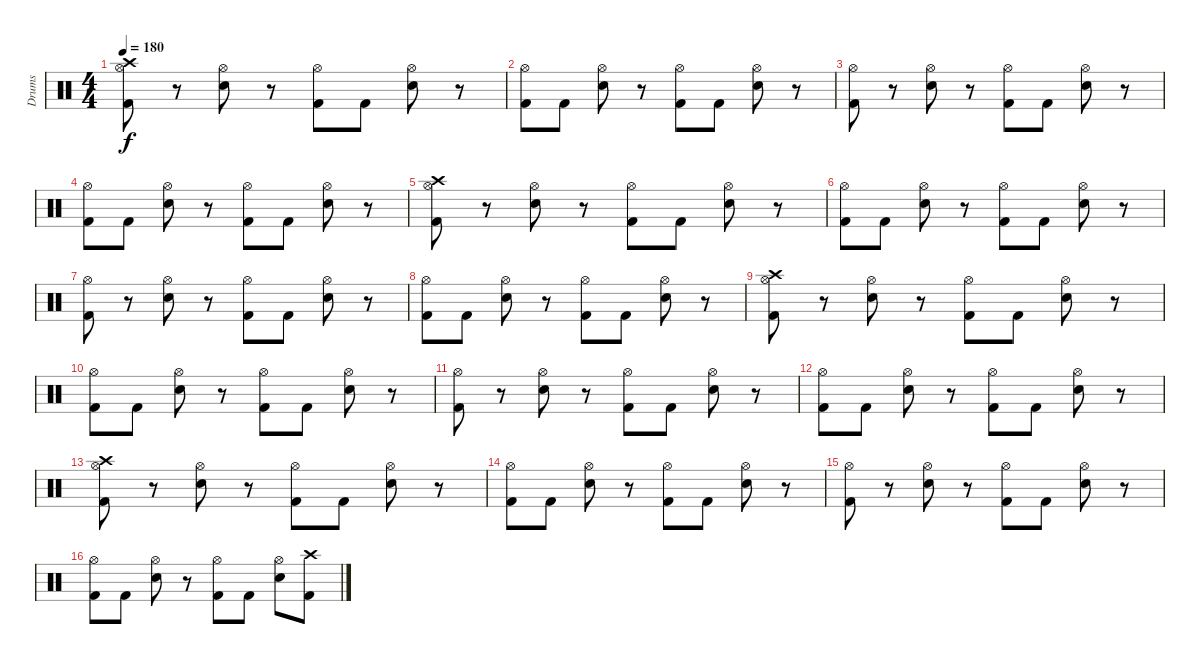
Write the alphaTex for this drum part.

\track ("Drums" "Drums") {instrument percussion}
\staff {score}
\articulation defaults
\ts (4 4)
\tempo 180
\clef neutral
\ks c
("Crash high (hit)" "Hi-Hat (open)" "Kick (hit) 2").8{dy f} r.8 ("Hi-Hat (open)" "Snare (hit) 2").8 r.8 ("Hi-Hat (open)" "Kick (hit) 2").8 "Kick (hit) 2".8 ("Hi-Hat (open)" "Snare (hit) 2").8 r.8 |
("Hi-Hat (open)" "Kick (hit) 2").8 "Kick (hit) 2".8 ("Hi-Hat (open)" "Snare (hit) 2").8 r.8 ("Hi-Hat (open)" "Kick (hit) 2").8 "Kick (hit) 2".8 ("Hi-Hat (open)" "Snare (hit) 2").8 r.8 |
("Hi-Hat (open)" "Kick (hit) 2").8 r.8 ("Hi-Hat (open)" "Snare (hit) 2").8 r.8 ("Hi-Hat (open)" "Kick (hit) 2").8 "Kick (hit) 2".8 ("Hi-Hat (open)" "Snare (hit) 2").8 r.8 |
("Hi-Hat (open)" "Kick (hit) 2").8 "Kick (hit) 2".8 ("Hi-Hat (open)" "Snare (hit) 2").8 r.8 ("Hi-Hat (open)" "Kick (hit) 2").8 "Kick (hit) 2".8 ("Hi-Hat (open)" "Snare (hit) 2").8 r.8 |
("Crash high (hit)" "Hi-Hat (open)" "Kick (hit) 2").8 r.8 ("Hi-Hat (open)" "Snare (hit) 2").8 r.8 ("Hi-Hat (open)" "Kick (hit) 2").8 "Kick (hit) 2".8 ("Hi-Hat (open)" "Snare (hit) 2").8 r.8 |
("Hi-Hat (open)" "Kick (hit) 2").8 "Kick (hit) 2".8 ("Hi-Hat (open)" "Snare (hit) 2").8 r.8 ("Hi-Hat (open)" "Kick (hit) 2").8 "Kick (hit) 2".8 ("Hi-Hat (open)" "Snare (hit) 2").8 r.8 |
("Hi-Hat (open)" "Kick (hit) 2").8 r.8 ("Hi-Hat (open)" "Snare (hit) 2").8 r.8 ("Hi-Hat (open)" "Kick (hit) 2").8 "Kick (hit) 2".8 ("Hi-Hat (open)" "Snare (hit) 2").8 r.8 |
("Hi-Hat (open)" "Kick (hit) 2").8 "Kick (hit) 2".8 ("Hi-Hat (open)" "Snare (hit) 2").8 r.8 ("Hi-Hat (open)" "Kick (hit) 2").8 "Kick (hit) 2".8 ("Hi-Hat (open)" "Snare (hit) 2").8 r.8 |
("Crash high (hit)" "Hi-Hat (open)" "Kick (hit) 2").8 r.8 ("Hi-Hat (open)" "Snare (hit) 2").8 r.8 ("Hi-Hat (open)" "Kick (hit) 2").8 "Kick (hit) 2".8 ("Hi-Hat (open)" "Snare (hit) 2").8 r.8 |
("Hi-Hat (open)" "Kick (hit) 2").8 "Kick (hit) 2".8 ("Hi-Hat (open)" "Snare (hit) 2").8 r.8 ("Hi-Hat (open)" "Kick (hit) 2").8 "Kick (hit) 2".8 ("Hi-Hat (open)" "Snare (hit) 2").8 r.8 |
("Hi-Hat (open)" "Kick (hit) 2").8 r.8 ("Hi-Hat (open)" "Snare (hit) 2").8 r.8 ("Hi-Hat (open)" "Kick (hit) 2").8 "Kick (hit) 2".8 ("Hi-Hat (open)" "Snare (hit) 2").8 r.8 |
("Hi-Hat (open)" "Kick (hit) 2").8 "Kick (hit) 2".8 ("Hi-Hat (open)" "Snare (hit) 2").8 r.8 ("Hi-Hat (open)" "Kick (hit) 2").8 "Kick (hit) 2".8 ("Hi-Hat (open)" "Snare (hit) 2").8 r.8 |
("Crash high (hit)" "Hi-Hat (open)" "Kick (hit) 2").8 r.8 ("Hi-Hat (open)" "Snare (hit) 2").8 r.8 ("Hi-Hat (open)" "Kick (hit) 2").8 "Kick (hit) 2".8 ("Hi-Hat (open)" "Snare (hit) 2").8 r.8 |
("Hi-Hat (open)" "Kick (hit) 2").8 "Kick (hit) 2".8 ("Hi-Hat (open)" "Snare (hit) 2").8 r.8 ("Hi-Hat (open)" "Kick (hit) 2").8 "Kick (hit) 2".8 ("Hi-Hat (open)" "Snare (hit) 2").8 r.8 |
("Hi-Hat (open)" "Kick (hit) 2").8 r.8 ("Hi-Hat (open)" "Snare (hit) 2").8 r.8 ("Hi-Hat (open)" "Kick (hit) 2").8 "Kick (hit) 2".8 ("Hi-Hat (open)" "Snare (hit) 2").8 r.8 |
("Hi-Hat (open)" "Kick (hit) 2").8 "Kick (hit) 2".8 ("Hi-Hat (open)" "Snare (hit) 2").8 r.8 ("Hi-Hat (open)" "Kick (hit) 2").8 "Kick (hit) 2".8 ("Hi-Hat (open)" "Snare (hit) 2").8 ("Crash high (hit)" "Kick (hit) 2").8
